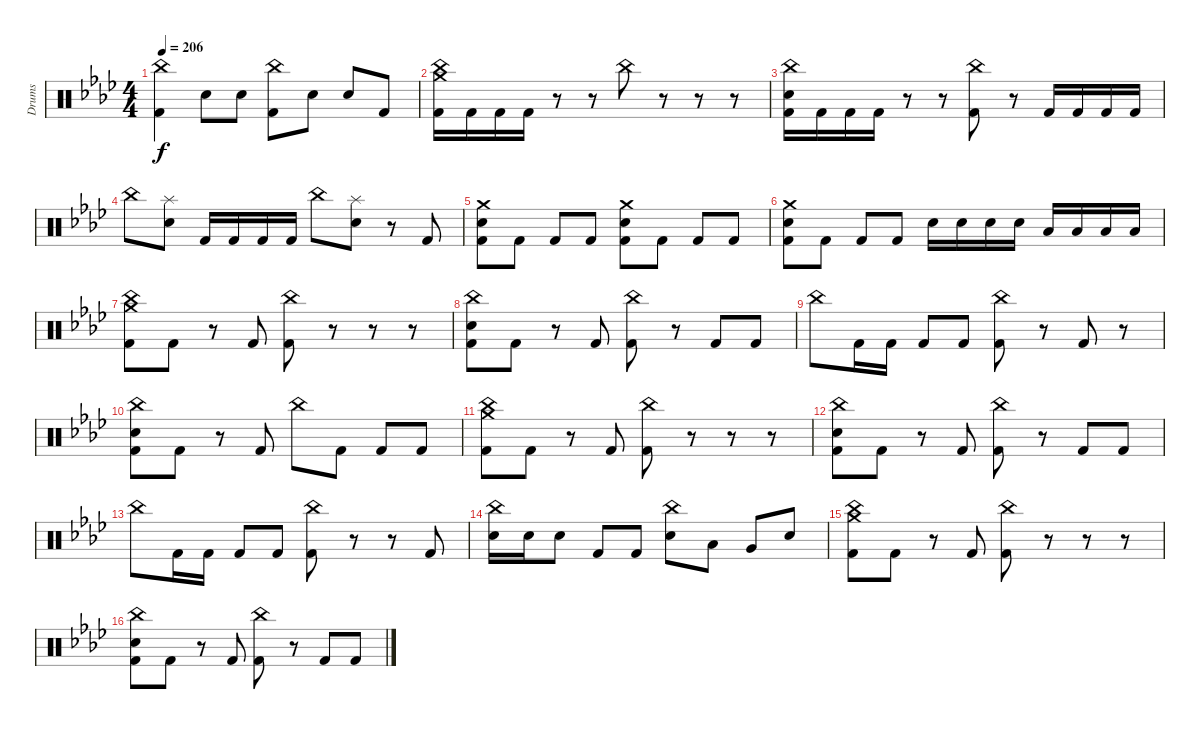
\track ("Drums" "Drums") {instrument percussion}
\staff {score}
\articulation defaults
\ts (4 4)
\tempo 206
\clef neutral
\ks fminor
("China (hit)" "Kick (hit) 2").4{dy f} "Electric Snare (hit)".8 "Electric Snare (hit)".8 ("China (hit)" "Kick (hit) 2").8 "Electric Snare (hit)".8 "Electric Snare (hit)".8 "Kick (hit) 2".8 |
("Crash medium (hit)" "China (hit)" "Kick (hit) 2").16 "Kick (hit) 2".16 "Kick (hit) 2".16 "Kick (hit) 2".16 r.8 r.8 "China (hit)".8 r.8 r.8 r.8 |
("China (hit)" "Electric Snare (hit)" "Kick (hit) 2").16 "Kick (hit) 2".16 "Kick (hit) 2".16 "Kick (hit) 2".16 r.8 r.8 ("China (hit)" "Kick (hit) 2").8 r.8 "Kick (hit) 2".16 "Kick (hit) 2".16 "Kick (hit) 2".16 "Kick (hit) 2".16 |
"China (hit)".8 ("Splash (hit)" "Electric Snare (hit)").8 "Kick (hit) 2".16 "Kick (hit) 2".16 "Kick (hit) 2".16 "Kick (hit) 2".16 "China (hit)".8 ("Splash (hit)" "Electric Snare (hit)").8 r.8 "Kick (hit) 2".8 |
("Crash medium (hit)" "Electric Snare (hit)" "Kick (hit) 2").8 "Kick (hit) 2".8 "Kick (hit) 2".8 "Kick (hit) 2".8 ("Crash medium (hit)" "Electric Snare (hit)" "Kick (hit) 2").8 "Kick (hit) 2".8 "Kick (hit) 2".8 "Kick (hit) 2".8 |
("Crash medium (hit)" "Electric Snare (hit)" "Kick (hit) 2").8 "Kick (hit) 2".8 "Kick (hit) 2".8 "Kick (hit) 2".8 "Electric Snare (hit)".16 "Electric Snare (hit)".16 "Electric Snare (hit)".16 "Electric Snare (hit)".16 "Low Tom (hit)".16 "Low Tom (hit)".16 "Low Tom (hit)".16 "Low Tom (hit)".16 |
("Crash medium (hit)" "China (hit)" "Kick (hit) 2").8 "Kick (hit) 2".8 r.8 "Kick (hit) 2".8 ("China (hit)" "Kick (hit) 2").8 r.8 r.8 r.8 |
("China (hit)" "Electric Snare (hit)" "Kick (hit) 2").8 "Kick (hit) 2".8 r.8 "Kick (hit) 2".8 ("China (hit)" "Kick (hit) 2").8 r.8 "Kick (hit) 2".8 "Kick (hit) 2".8 |
"China (hit)".8 "Kick (hit) 2".16 "Kick (hit) 2".16 "Kick (hit) 2".8 "Kick (hit) 2".8 ("China (hit)" "Kick (hit) 2").8 r.8 "Kick (hit) 2".8 r.8 |
("China (hit)" "Electric Snare (hit)" "Kick (hit) 2").8 "Kick (hit) 2".8 r.8 "Kick (hit) 2".8 "China (hit)".8 "Kick (hit) 2".8 "Kick (hit) 2".8 "Kick (hit) 2".8 |
("Crash medium (hit)" "China (hit)" "Kick (hit) 2").8 "Kick (hit) 2".8 r.8 "Kick (hit) 2".8 ("China (hit)" "Kick (hit) 2").8 r.8 r.8 r.8 |
("China (hit)" "Electric Snare (hit)" "Kick (hit) 2").8 "Kick (hit) 2".8 r.8 "Kick (hit) 2".8 ("China (hit)" "Kick (hit) 2").8 r.8 "Kick (hit) 2".8 "Kick (hit) 2".8 |
"China (hit)".8 "Kick (hit) 2".16 "Kick (hit) 2".16 "Kick (hit) 2".8 "Kick (hit) 2".8 ("China (hit)" "Kick (hit) 2").8 r.8 r.8 "Kick (hit) 2".8 |
("China (hit)" "Electric Snare (hit)").16 "Electric Snare (hit)".16 "Electric Snare (hit)".8 "Kick (hit) 2".8 "Kick (hit) 2".8 ("China (hit)" "Electric Snare (hit)").8 "Low Tom (hit)".8 "Very Low Tom (hit)".8 "Electric Snare (hit)".8 |
("Crash medium (hit)" "China (hit)" "Kick (hit) 2").8 "Kick (hit) 2".8 r.8 "Kick (hit) 2".8 ("China (hit)" "Kick (hit) 2").8 r.8 r.8 r.8 |
("China (hit)" "Electric Snare (hit)" "Kick (hit) 2").8 "Kick (hit) 2".8 r.8 "Kick (hit) 2".8 ("China (hit)" "Kick (hit) 2").8 r.8 "Kick (hit) 2".8 "Kick (hit) 2".8
